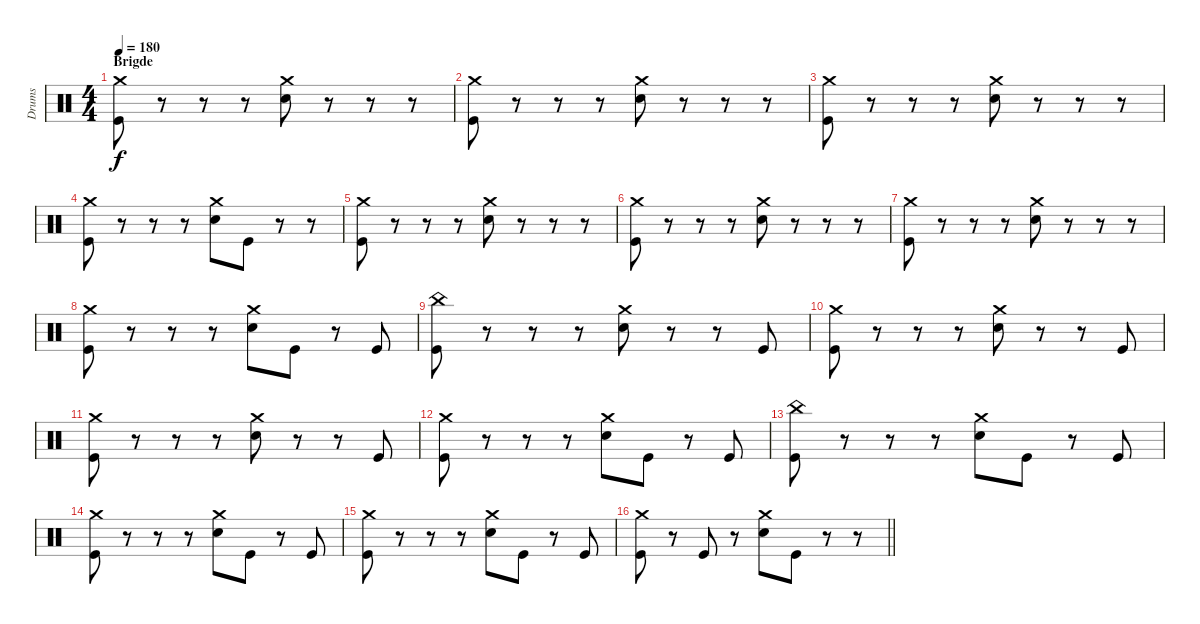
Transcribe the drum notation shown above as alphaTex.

\track ("Drums" "Drums") {instrument percussion}
\staff {score}
\articulation defaults
\ts (4 4)
\section ("" "Brigde")
\tempo 180
\clef neutral
\ks c
("Crash medium (hit)" "Kick (hit)").8{dy f} r.8 r.8 r.8 ("Crash medium (hit)" "Snare (hit) 2").8 r.8 r.8 r.8 |
("Crash medium (hit)" "Kick (hit)").8 r.8 r.8 r.8 ("Crash medium (hit)" "Snare (hit) 2").8 r.8 r.8 r.8 |
("Crash medium (hit)" "Kick (hit)").8 r.8 r.8 r.8 ("Crash medium (hit)" "Snare (hit) 2").8 r.8 r.8 r.8 |
("Crash medium (hit)" "Kick (hit)").8 r.8 r.8 r.8 ("Crash medium (hit)" "Snare (hit) 2").8 "Kick (hit)".8 r.8 r.8 |
("Crash medium (hit)" "Kick (hit)").8 r.8 r.8 r.8 ("Crash medium (hit)" "Snare (hit) 2").8 r.8 r.8 r.8 |
("Crash medium (hit)" "Kick (hit)").8 r.8 r.8 r.8 ("Crash medium (hit)" "Snare (hit) 2").8 r.8 r.8 r.8 |
("Crash medium (hit)" "Kick (hit)").8 r.8 r.8 r.8 ("Crash medium (hit)" "Snare (hit) 2").8 r.8 r.8 r.8 |
("Crash medium (hit)" "Kick (hit)").8 r.8 r.8 r.8 ("Crash medium (hit)" "Snare (hit) 2").8 "Kick (hit)".8 r.8 "Kick (hit)".8 |
("China (hit)" "Kick (hit)").8 r.8 r.8 r.8 ("Crash medium (hit)" "Snare (hit) 2").8 r.8 r.8 "Kick (hit)".8 |
("Crash medium (hit)" "Kick (hit)").8 r.8 r.8 r.8 ("Crash medium (hit)" "Snare (hit) 2").8 r.8 r.8 "Kick (hit)".8 |
("Crash medium (hit)" "Kick (hit)").8 r.8 r.8 r.8 ("Crash medium (hit)" "Snare (hit) 2").8 r.8 r.8 "Kick (hit)".8 |
("Crash medium (hit)" "Kick (hit)").8 r.8 r.8 r.8 ("Crash medium (hit)" "Snare (hit) 2").8 "Kick (hit)".8 r.8 "Kick (hit)".8 |
("China (hit)" "Kick (hit)").8 r.8 r.8 r.8 ("Crash medium (hit)" "Snare (hit) 2").8 "Kick (hit)".8 r.8 "Kick (hit)".8 |
("Crash medium (hit)" "Kick (hit)").8 r.8 r.8 r.8 ("Crash medium (hit)" "Snare (hit) 2").8 "Kick (hit)".8 r.8 "Kick (hit)".8 |
("Crash medium (hit)" "Kick (hit)").8 r.8 r.8 r.8 ("Crash medium (hit)" "Snare (hit) 2").8 "Kick (hit)".8 r.8 "Kick (hit)".8 |
\barLineRight lightlight
("Crash medium (hit)" "Kick (hit)").8 r.8 "Kick (hit)".8 r.8 ("Crash medium (hit)" "Snare (hit) 2").8 "Kick (hit)".8 r.8 r.8
